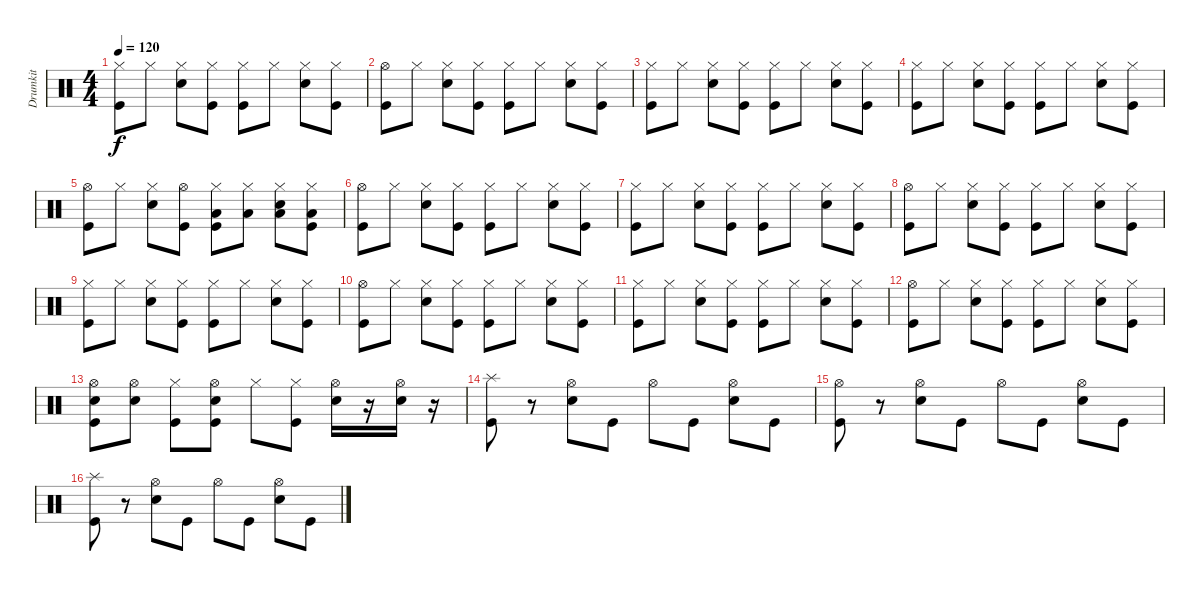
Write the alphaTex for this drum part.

\track ("Drumkit" "Drumkit") {instrument percussion}
\staff {score}
\articulation defaults
\ts (4 4)
\tempo 120
\clef neutral
\ks c
("Kick (hit)" "Hi-Hat (closed)").8{dy f} "Hi-Hat (closed)".8 ("Snare (hit) 2" "Hi-Hat (closed)").8 ("Kick (hit)" "Hi-Hat (closed)").8 ("Kick (hit)" "Hi-Hat (closed)").8 "Hi-Hat (closed)".8 ("Snare (hit) 2" "Hi-Hat (closed)").8 ("Kick (hit)" "Hi-Hat (closed)").8 |
("Kick (hit)" "Hi-Hat (open)").8 "Hi-Hat (closed)".8 ("Snare (hit) 2" "Hi-Hat (closed)").8 ("Kick (hit)" "Hi-Hat (closed)").8 ("Kick (hit)" "Hi-Hat (closed)").8 "Hi-Hat (closed)".8 ("Snare (hit) 2" "Hi-Hat (closed)").8 ("Kick (hit)" "Hi-Hat (closed)").8 |
("Kick (hit)" "Hi-Hat (closed)").8 "Hi-Hat (closed)".8 ("Snare (hit) 2" "Hi-Hat (closed)").8 ("Kick (hit)" "Hi-Hat (closed)").8 ("Kick (hit)" "Hi-Hat (closed)").8 "Hi-Hat (closed)".8 ("Snare (hit) 2" "Hi-Hat (closed)").8 ("Kick (hit)" "Hi-Hat (closed)").8 |
("Kick (hit)" "Hi-Hat (closed)").8 "Hi-Hat (closed)".8 ("Snare (hit) 2" "Hi-Hat (closed)").8 ("Kick (hit)" "Hi-Hat (closed)").8 ("Kick (hit)" "Hi-Hat (closed)").8 "Hi-Hat (closed)".8 ("Snare (hit) 2" "Hi-Hat (closed)").8 ("Kick (hit)" "Hi-Hat (closed)").8 |
("Kick (hit)" "Hi-Hat (open)").8 "Hi-Hat (closed)".8 ("Snare (hit) 2" "Hi-Hat (closed)").8 ("Kick (hit)" "Hi-Hat (open)").8 ("Kick (hit)" "Hi-Hat (closed)" "Low Tom (hit)").8 ("Hi-Hat (closed)" "Low Tom (hit)").8 ("Snare (hit) 2" "Hi-Hat (closed)" "Low Floor Tom (hit)").8 ("Kick (hit)" "Hi-Hat (closed)" "Low Floor Tom (hit)").8 |
("Kick (hit)" "Hi-Hat (open)").8 "Hi-Hat (closed)".8 ("Snare (hit) 2" "Hi-Hat (closed)").8 ("Kick (hit)" "Hi-Hat (closed)").8 ("Kick (hit)" "Hi-Hat (closed)").8 "Hi-Hat (closed)".8 ("Snare (hit) 2" "Hi-Hat (closed)").8 ("Kick (hit)" "Hi-Hat (closed)").8 |
("Kick (hit)" "Hi-Hat (closed)").8 "Hi-Hat (closed)".8 ("Snare (hit) 2" "Hi-Hat (closed)").8 ("Kick (hit)" "Hi-Hat (closed)").8 ("Kick (hit)" "Hi-Hat (closed)").8 "Hi-Hat (closed)".8 ("Snare (hit) 2" "Hi-Hat (closed)").8 ("Kick (hit)" "Hi-Hat (closed)").8 |
("Kick (hit)" "Hi-Hat (open)").8 "Hi-Hat (closed)".8 ("Snare (hit) 2" "Hi-Hat (closed)").8 ("Kick (hit)" "Hi-Hat (closed)").8 ("Kick (hit)" "Hi-Hat (closed)").8 "Hi-Hat (closed)".8 ("Snare (hit) 2" "Hi-Hat (closed)").8 ("Kick (hit)" "Hi-Hat (closed)").8 |
("Kick (hit)" "Hi-Hat (closed)").8 "Hi-Hat (closed)".8 ("Snare (hit) 2" "Hi-Hat (closed)").8 ("Kick (hit)" "Hi-Hat (closed)").8 ("Kick (hit)" "Hi-Hat (closed)").8 "Hi-Hat (closed)".8 ("Snare (hit) 2" "Hi-Hat (closed)").8 ("Kick (hit)" "Hi-Hat (closed)").8 |
("Kick (hit)" "Hi-Hat (open)").8 "Hi-Hat (closed)".8 ("Snare (hit) 2" "Hi-Hat (closed)").8 ("Kick (hit)" "Hi-Hat (closed)").8 ("Kick (hit)" "Hi-Hat (closed)").8 "Hi-Hat (closed)".8 ("Snare (hit) 2" "Hi-Hat (closed)").8 ("Kick (hit)" "Hi-Hat (closed)").8 |
("Kick (hit)" "Hi-Hat (closed)").8 "Hi-Hat (closed)".8 ("Snare (hit) 2" "Hi-Hat (closed)").8 ("Kick (hit)" "Hi-Hat (closed)").8 ("Kick (hit)" "Hi-Hat (closed)").8 "Hi-Hat (closed)".8 ("Snare (hit) 2" "Hi-Hat (closed)").8 ("Kick (hit)" "Hi-Hat (closed)").8 |
("Kick (hit)" "Hi-Hat (open)").8 "Hi-Hat (closed)".8 ("Snare (hit) 2" "Hi-Hat (closed)").8 ("Kick (hit)" "Hi-Hat (closed)").8 ("Kick (hit)" "Hi-Hat (closed)").8 "Hi-Hat (closed)".8 ("Snare (hit) 2" "Hi-Hat (closed)").8 ("Kick (hit)" "Hi-Hat (closed)").8 |
("Kick (hit)" "Hi-Hat (open)" "Snare (hit) 2").8 ("Hi-Hat (open)" "Snare (hit) 2").8 ("Hi-Hat (closed)" "Kick (hit)").8 ("Kick (hit)" "Hi-Hat (open)" "Snare (hit) 2").8 "Hi-Hat (closed)".8 ("Kick (hit)" "Hi-Hat (closed)").8 ("Snare (hit) 2" "Hi-Hat (open)").16 r.16 ("Snare (hit) 2" "Hi-Hat (open)").16 r.16 |
("Kick (hit)" "Splash (hit)").8 r.8 ("Snare (hit) 2" "Hi-Hat (open)").8 "Kick (hit)".8 "Hi-Hat (open)".8 "Kick (hit)".8 ("Snare (hit) 2" "Hi-Hat (open)").8 "Kick (hit)".8 |
("Kick (hit)" "Hi-Hat (open)").8 r.8 ("Snare (hit) 2" "Hi-Hat (open)").8 "Kick (hit)".8 "Hi-Hat (open)".8 "Kick (hit)".8 ("Snare (hit) 2" "Hi-Hat (open)").8 "Kick (hit)".8 |
("Kick (hit)" "Splash (hit)").8 r.8 ("Snare (hit) 2" "Hi-Hat (open)").8 "Kick (hit)".8 "Hi-Hat (open)".8 "Kick (hit)".8 ("Snare (hit) 2" "Hi-Hat (open)").8 "Kick (hit)".8
